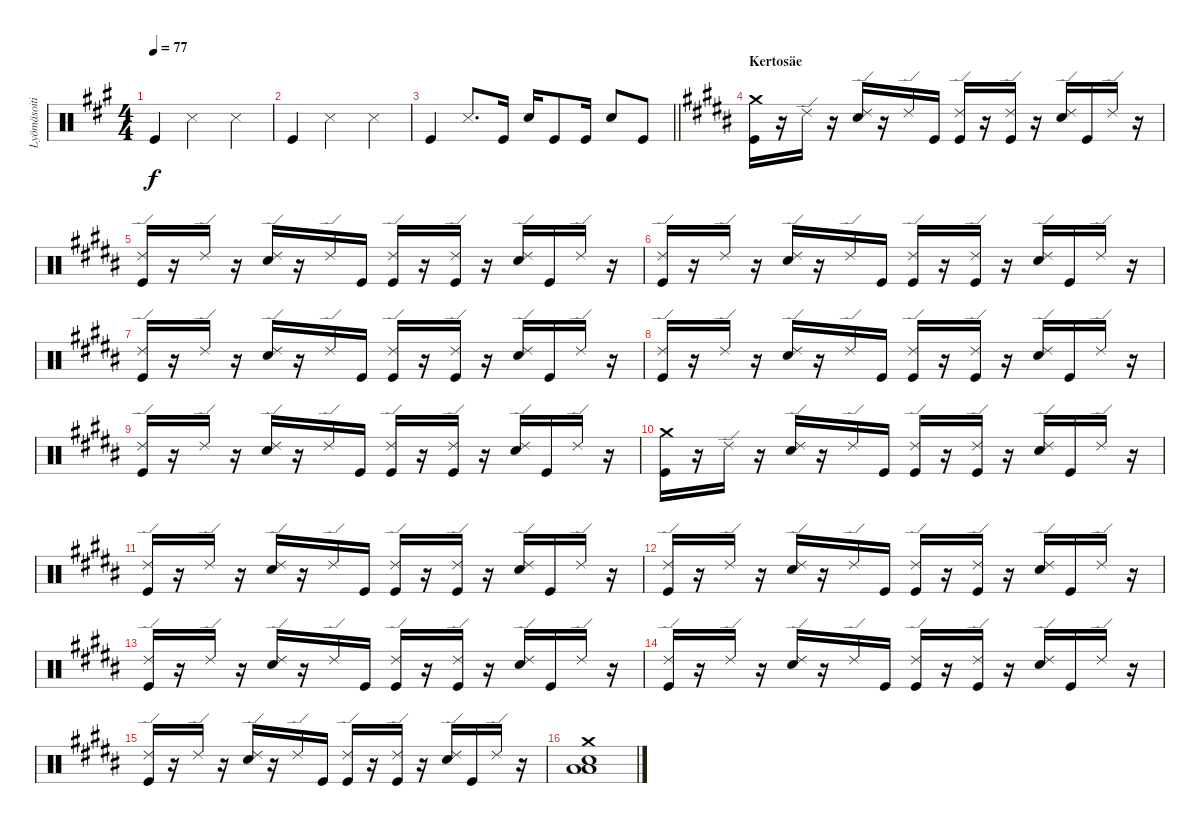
\track ("Lyömäsoitin" "Lyömäsoiti") {instrument percussion}
\staff {score}
\articulation defaults
\ts (4 4)
\tempo 77
\clef neutral
\ks a "Kick (hit)".4{dy f} "Snare (side stick) 3".2 "Snare (side stick) 3".4
|
"Kick (hit)".4 "Snare (side stick) 3".2 "Snare (side stick) 3".4 |
\barLineRight lightlight "Kick (hit)".4 "Snare (side stick) 3".8{d} "Kick (hit)".16 "Snare (hit) 2".16 "Kick (hit)".8 "Kick (hit)".16 "Snare (hit) 2".8 "Kick (hit)".8
|
\section ("" "Kertosäe")
\ks b
("Crash medium (hit)" "Kick (hit)").16 r.16 "Ride (edge) 2".16 r.16 ("Ride (edge) 2" "Snare (hit) 2").16 r.16 "Ride (edge) 2".16 "Kick (hit)".16 ("Ride (edge) 2" "Kick (hit)").16 r.16 ("Ride (edge) 2" "Kick (hit)").16 r.16 ("Ride (edge) 2" "Snare (hit) 2").16 "Kick (hit)".16 "Ride (edge) 2".16 r.16 |
("Ride (edge) 2" "Kick (hit)").16 r.16 "Ride (edge) 2".16 r.16 ("Ride (edge) 2" "Snare (hit) 2").16 r.16 "Ride (edge) 2".16 "Kick (hit)".16 ("Ride (edge) 2" "Kick (hit)").16 r.16 ("Ride (edge) 2" "Kick (hit)").16 r.16 ("Ride (edge) 2" "Snare (hit) 2").16 "Kick (hit)".16 "Ride (edge) 2".16 r.16 |
("Ride (edge) 2" "Kick (hit)").16 r.16 "Ride (edge) 2".16 r.16 ("Ride (edge) 2" "Snare (hit) 2").16 r.16 "Ride (edge) 2".16 "Kick (hit)".16 ("Ride (edge) 2" "Kick (hit)").16 r.16 ("Ride (edge) 2" "Kick (hit)").16 r.16 ("Ride (edge) 2" "Snare (hit) 2").16 "Kick (hit)".16 "Ride (edge) 2".16 r.16 |
("Ride (edge) 2" "Kick (hit)").16 r.16 "Ride (edge) 2".16 r.16 ("Ride (edge) 2" "Snare (hit) 2").16 r.16 "Ride (edge) 2".16 "Kick (hit)".16 ("Ride (edge) 2" "Kick (hit)").16 r.16 ("Ride (edge) 2" "Kick (hit)").16 r.16 ("Ride (edge) 2" "Snare (hit) 2").16 "Kick (hit)".16 "Ride (edge) 2".16 r.16 |
("Ride (edge) 2" "Kick (hit)").16 r.16 "Ride (edge) 2".16 r.16 ("Ride (edge) 2" "Snare (hit) 2").16 r.16 "Ride (edge) 2".16 "Kick (hit)".16 ("Ride (edge) 2" "Kick (hit)").16 r.16 ("Ride (edge) 2" "Kick (hit)").16 r.16 ("Ride (edge) 2" "Snare (hit) 2").16 "Kick (hit)".16 "Ride (edge) 2".16 r.16 |
("Ride (edge) 2" "Kick (hit)").16 r.16 "Ride (edge) 2".16 r.16 ("Ride (edge) 2" "Snare (hit) 2").16 r.16 "Ride (edge) 2".16 "Kick (hit)".16 ("Ride (edge) 2" "Kick (hit)").16 r.16 ("Ride (edge) 2" "Kick (hit)").16 r.16 ("Ride (edge) 2" "Snare (hit) 2").16 "Kick (hit)".16 "Ride (edge) 2".16 r.16 |
("Crash medium (hit)" "Kick (hit)").16 r.16 "Ride (edge) 2".16 r.16 ("Ride (edge) 2" "Snare (hit) 2").16 r.16 "Ride (edge) 2".16 "Kick (hit)".16 ("Ride (edge) 2" "Kick (hit)").16 r.16 ("Ride (edge) 2" "Kick (hit)").16 r.16 ("Ride (edge) 2" "Snare (hit) 2").16 "Kick (hit)".16 "Ride (edge) 2".16 r.16 |
("Ride (edge) 2" "Kick (hit)").16 r.16 "Ride (edge) 2".16 r.16 ("Ride (edge) 2" "Snare (hit) 2").16 r.16 "Ride (edge) 2".16 "Kick (hit)".16 ("Ride (edge) 2" "Kick (hit)").16 r.16 ("Ride (edge) 2" "Kick (hit)").16 r.16 ("Ride (edge) 2" "Snare (hit) 2").16 "Kick (hit)".16 "Ride (edge) 2".16 r.16 |
("Ride (edge) 2" "Kick (hit)").16 r.16 "Ride (edge) 2".16 r.16 ("Ride (edge) 2" "Snare (hit) 2").16 r.16 "Ride (edge) 2".16 "Kick (hit)".16 ("Ride (edge) 2" "Kick (hit)").16 r.16 ("Ride (edge) 2" "Kick (hit)").16 r.16 ("Ride (edge) 2" "Snare (hit) 2").16 "Kick (hit)".16 "Ride (edge) 2".16 r.16 |
("Ride (edge) 2" "Kick (hit)").16 r.16 "Ride (edge) 2".16 r.16 ("Ride (edge) 2" "Snare (hit) 2").16 r.16 "Ride (edge) 2".16 "Kick (hit)".16 ("Ride (edge) 2" "Kick (hit)").16 r.16 ("Ride (edge) 2" "Kick (hit)").16 r.16 ("Ride (edge) 2" "Snare (hit) 2").16 "Kick (hit)".16 "Ride (edge) 2".16 r.16 |
("Ride (edge) 2" "Kick (hit)").16 r.16 "Ride (edge) 2".16 r.16 ("Ride (edge) 2" "Snare (hit) 2").16 r.16 "Ride (edge) 2".16 "Kick (hit)".16 ("Ride (edge) 2" "Kick (hit)").16 r.16 ("Ride (edge) 2" "Kick (hit)").16 r.16 ("Ride (edge) 2" "Snare (hit) 2").16 "Kick (hit)".16 "Ride (edge) 2".16 r.16 |
("Ride (edge) 2" "Kick (hit)").16 r.16 "Ride (edge) 2".16 r.16 ("Ride (edge) 2" "Snare (hit) 2").16 r.16 "Ride (edge) 2".16 "Kick (hit)".16 ("Ride (edge) 2" "Kick (hit)").16 r.16 ("Ride (edge) 2" "Kick (hit)").16 r.16 ("Ride (edge) 2" "Snare (hit) 2").16 "Kick (hit)".16 "Ride (edge) 2".16 r.16 |
("Crash medium (hit)" "Snare (hit) 2" "Low Tom (hit)" "Low Floor Tom (hit)").1
